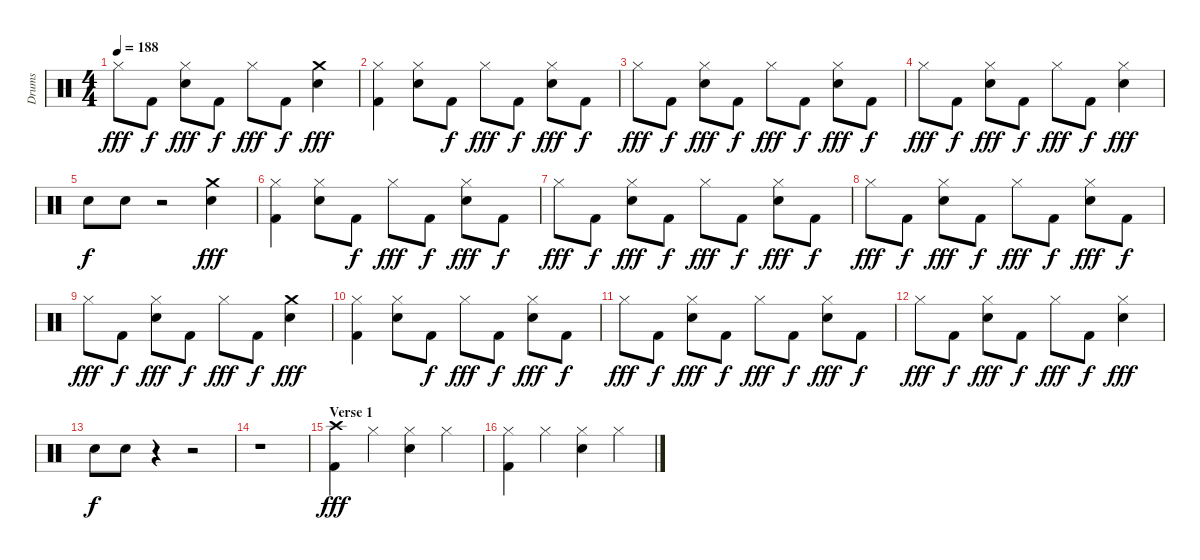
\track ("Drums" "Drums") {instrument percussion}
\staff {score}
\articulation defaults
\ts (4 4)
\tempo 188
\clef neutral
\ks c "Hi-Hat (closed)".8{dy fff} "Kick (hit) 2".8{dy f}
("Hi-Hat (closed)" "Snare (hit) 2").8{dy fff} "Kick (hit) 2".8{dy f} "Hi-Hat (closed)".8{dy fff} "Kick (hit) 2".8{dy f} ("Crash medium (hit)" "Snare (hit) 2").4{dy fff} |
("Hi-Hat (closed)" "Kick (hit) 2").4 ("Hi-Hat (closed)" "Snare (hit) 2").8 "Kick (hit) 2".8{dy f} "Hi-Hat (closed)".8{dy fff} "Kick (hit) 2".8{dy f} ("Hi-Hat (closed)" "Snare (hit) 2").8{dy fff} "Kick (hit) 2".8{dy f} |
"Hi-Hat (closed)".8{dy fff} "Kick (hit) 2".8{dy f} ("Hi-Hat (closed)" "Snare (hit) 2").8{dy fff} "Kick (hit) 2".8{dy f} "Hi-Hat (closed)".8{dy fff} "Kick (hit) 2".8{dy f} ("Hi-Hat (closed)" "Snare (hit) 2").8{dy fff} "Kick (hit) 2".8{dy f} |
"Hi-Hat (closed)".8{dy fff} "Kick (hit) 2".8{dy f} ("Hi-Hat (closed)" "Snare (hit) 2").8{dy fff} "Kick (hit) 2".8{dy f} "Hi-Hat (closed)".8{dy fff} "Kick (hit) 2".8{dy f} ("Hi-Hat (closed)" "Snare (hit) 2").4{dy fff} |
"Snare (hit) 2".8{dy f} "Snare (hit) 2".8 r.2 ("Crash medium (hit)" "Snare (hit) 2").4{dy fff} |
("Hi-Hat (closed)" "Kick (hit) 2").4 ("Hi-Hat (closed)" "Snare (hit) 2").8 "Kick (hit) 2".8{dy f} "Hi-Hat (closed)".8{dy fff} "Kick (hit) 2".8{dy f} ("Hi-Hat (closed)" "Snare (hit) 2").8{dy fff} "Kick (hit) 2".8{dy f} |
"Hi-Hat (closed)".8{dy fff} "Kick (hit) 2".8{dy f} ("Hi-Hat (closed)" "Snare (hit) 2").8{dy fff} "Kick (hit) 2".8{dy f} "Hi-Hat (closed)".8{dy fff} "Kick (hit) 2".8{dy f} ("Hi-Hat (closed)" "Snare (hit) 2").8{dy fff} "Kick (hit) 2".8{dy f} |
"Hi-Hat (closed)".8{dy fff} "Kick (hit) 2".8{dy f} ("Hi-Hat (closed)" "Snare (hit) 2").8{dy fff} "Kick (hit) 2".8{dy f} "Hi-Hat (closed)".8{dy fff} "Kick (hit) 2".8{dy f} ("Hi-Hat (closed)" "Snare (hit) 2").8{dy fff} "Kick (hit) 2".8{dy f} |
"Hi-Hat (closed)".8{dy fff} "Kick (hit) 2".8{dy f} ("Hi-Hat (closed)" "Snare (hit) 2").8{dy fff} "Kick (hit) 2".8{dy f} "Hi-Hat (closed)".8{dy fff} "Kick (hit) 2".8{dy f} ("Crash medium (hit)" "Snare (hit) 2").4{dy fff} |
("Hi-Hat (closed)" "Kick (hit) 2").4 ("Hi-Hat (closed)" "Snare (hit) 2").8 "Kick (hit) 2".8{dy f} "Hi-Hat (closed)".8{dy fff} "Kick (hit) 2".8{dy f} ("Hi-Hat (closed)" "Snare (hit) 2").8{dy fff} "Kick (hit) 2".8{dy f} |
"Hi-Hat (closed)".8{dy fff} "Kick (hit) 2".8{dy f} ("Hi-Hat (closed)" "Snare (hit) 2").8{dy fff} "Kick (hit) 2".8{dy f} "Hi-Hat (closed)".8{dy fff} "Kick (hit) 2".8{dy f} ("Hi-Hat (closed)" "Snare (hit) 2").8{dy fff} "Kick (hit) 2".8{dy f} |
"Hi-Hat (closed)".8{dy fff} "Kick (hit) 2".8{dy f} ("Hi-Hat (closed)" "Snare (hit) 2").8{dy fff} "Kick (hit) 2".8{dy f} "Hi-Hat (closed)".8{dy fff} "Kick (hit) 2".8{dy f} ("Hi-Hat (closed)" "Snare (hit) 2").4{dy fff} |
"Snare (hit) 2".8{dy f} "Snare (hit) 2".8 r.4 r.2 |
r.1 |
\section ("" "Verse 1")
("Crash high (hit)" "Kick (hit) 2").4{dy fff} "Hi-Hat (closed)".4 ("Hi-Hat (closed)" "Snare (hit) 2").4 "Hi-Hat (closed)".4 |
("Hi-Hat (closed)" "Kick (hit) 2").4 "Hi-Hat (closed)".4 ("Hi-Hat (closed)" "Snare (hit) 2").4 "Hi-Hat (closed)".4
